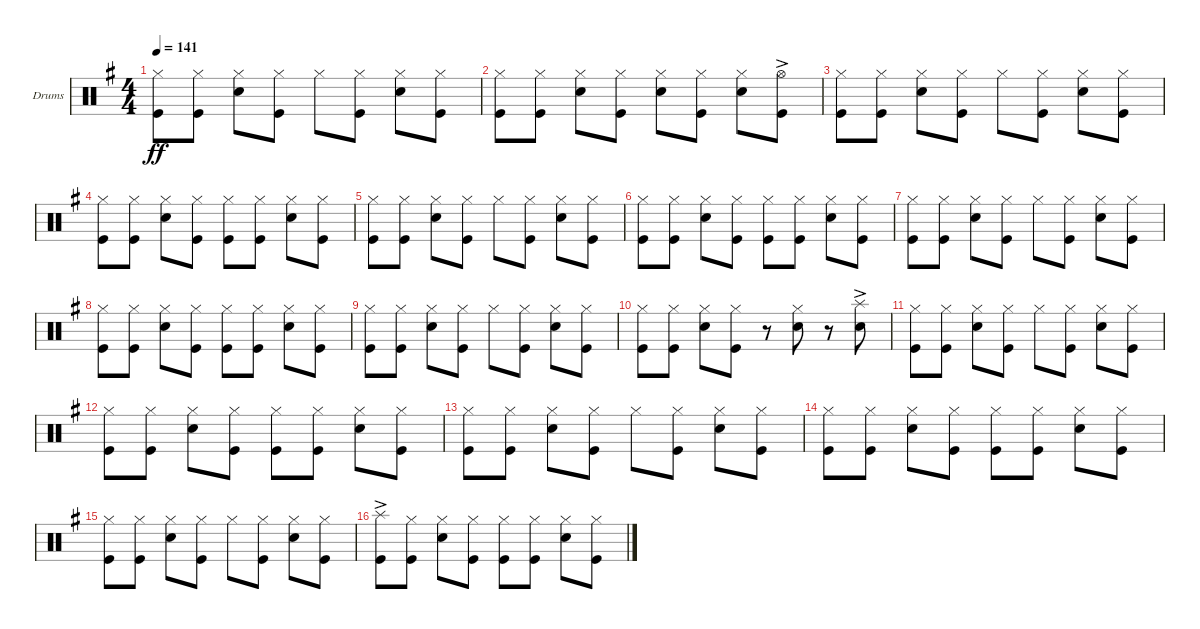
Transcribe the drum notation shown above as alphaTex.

\defaultSystemsLayout 4
\bracketExtendMode groupsimilarinstruments
\firstSystemTrackNameOrientation horizontal
\otherSystemsTrackNameOrientation horizontal
\track ("Drumkit" "Drums") {instrument percussion}
\staff {score}
\articulation defaults
\ts (4 4)
\tempo 141
\clef neutral
\scale
0.333333
\ks g
("Kick (hit)" "Hi-Hat (closed)").8{dy ff} ("Kick (hit)" "Hi-Hat (closed)").8 ("Snare (hit) 2" "Hi-Hat (closed)").8 ("Hi-Hat (closed)" "Kick (hit)").8 "Hi-Hat (closed)".8 ("Kick (hit)" "Hi-Hat (closed)").8 ("Snare (hit) 2" "Hi-Hat (closed)").8 ("Kick (hit)" "Hi-Hat (closed)").8 |
\scale
0.333333 ("Kick (hit)" "Hi-Hat (closed)").8 ("Kick (hit)" "Hi-Hat (closed)").8 ("Snare (hit) 2" "Hi-Hat (closed)").8 ("Kick (hit)" "Hi-Hat (closed)").8 ("Hi-Hat (closed)" "Snare (hit) 2").8 ("Kick (hit)" "Hi-Hat (closed)").8 ("Snare (hit) 2" "Hi-Hat (closed)").8 ("Kick (hit)" "Hi-Hat (open)"{ac}).8 |
\scale
0.333333 ("Kick (hit)" "Hi-Hat (closed)").8 ("Kick (hit)" "Hi-Hat (closed)").8 ("Snare (hit) 2" "Hi-Hat (closed)").8 ("Kick (hit)" "Hi-Hat (closed)").8 "Hi-Hat (closed)".8 ("Kick (hit)" "Hi-Hat (closed)").8 ("Snare (hit) 2" "Hi-Hat (closed)").8 ("Kick (hit)" "Hi-Hat (closed)").8 |
\scale
0.333333 ("Kick (hit)" "Hi-Hat (closed)").8 ("Kick (hit)" "Hi-Hat (closed)").8 ("Snare (hit) 2" "Hi-Hat (closed)").8 ("Kick (hit)" "Hi-Hat (closed)").8 ("Kick (hit)" "Hi-Hat (closed)").8 ("Kick (hit)" "Hi-Hat (closed)").8 ("Snare (hit) 2" "Hi-Hat (closed)").8 ("Kick (hit)" "Hi-Hat (closed)").8 |
\scale
0.333333 ("Kick (hit)" "Hi-Hat (closed)").8 ("Kick (hit)" "Hi-Hat (closed)").8 ("Snare (hit) 2" "Hi-Hat (closed)").8 ("Hi-Hat (closed)" "Kick (hit)").8 "Hi-Hat (closed)".8 ("Kick (hit)" "Hi-Hat (closed)").8 ("Snare (hit) 2" "Hi-Hat (closed)").8 ("Kick (hit)" "Hi-Hat (closed)").8 |
\scale
0.333333 ("Kick (hit)" "Hi-Hat (closed)").8 ("Kick (hit)" "Hi-Hat (closed)").8 ("Snare (hit) 2" "Hi-Hat (closed)").8 ("Kick (hit)" "Hi-Hat (closed)").8 ("Kick (hit)" "Hi-Hat (closed)").8 ("Kick (hit)" "Hi-Hat (closed)").8 ("Snare (hit) 2" "Hi-Hat (closed)").8 ("Kick (hit)" "Hi-Hat (closed)").8 |
\scale
0.333333 ("Kick (hit)" "Hi-Hat (closed)").8 ("Kick (hit)" "Hi-Hat (closed)").8 ("Snare (hit) 2" "Hi-Hat (closed)").8 ("Hi-Hat (closed)" "Kick (hit)").8 "Hi-Hat (closed)".8 ("Kick (hit)" "Hi-Hat (closed)").8 ("Snare (hit) 2" "Hi-Hat (closed)").8 ("Kick (hit)" "Hi-Hat (closed)").8 |
\scale
0.333333 ("Kick (hit)" "Hi-Hat (closed)").8 ("Kick (hit)" "Hi-Hat (closed)").8 ("Snare (hit) 2" "Hi-Hat (closed)").8 ("Kick (hit)" "Hi-Hat (closed)").8 ("Kick (hit)" "Hi-Hat (closed)").8 ("Kick (hit)" "Hi-Hat (closed)").8 ("Snare (hit) 2" "Hi-Hat (closed)").8 ("Kick (hit)" "Hi-Hat (closed)").8 |
\scale
0.333333 ("Kick (hit)" "Hi-Hat (closed)").8 ("Kick (hit)" "Hi-Hat (closed)").8 ("Snare (hit) 2" "Hi-Hat (closed)").8 ("Hi-Hat (closed)" "Kick (hit)").8 "Hi-Hat (closed)".8 ("Kick (hit)" "Hi-Hat (closed)").8 ("Snare (hit) 2" "Hi-Hat (closed)").8 ("Kick (hit)" "Hi-Hat (closed)").8 |
\scale
0.333333 ("Kick (hit)" "Hi-Hat (closed)").8 ("Kick (hit)" "Hi-Hat (closed)").8 ("Snare (hit) 2" "Hi-Hat (closed)").8 ("Kick (hit)" "Hi-Hat (closed)").8 r.8 ("Hi-Hat (closed)" "Snare (hit) 2").8 r.8 ("Snare (hit) 2" "Splash (hit)"{ac}).8 |
\scale
0.333333 ("Kick (hit)" "Hi-Hat (closed)").8 ("Kick (hit)" "Hi-Hat (closed)").8 ("Snare (hit) 2" "Hi-Hat (closed)").8 ("Kick (hit)" "Hi-Hat (closed)").8 "Hi-Hat (closed)".8 ("Kick (hit)" "Hi-Hat (closed)").8 ("Snare (hit) 2" "Hi-Hat (closed)").8 ("Kick (hit)" "Hi-Hat (closed)").8 |
\scale
0.333333 ("Kick (hit)" "Hi-Hat (closed)").8 ("Kick (hit)" "Hi-Hat (closed)").8 ("Snare (hit) 2" "Hi-Hat (closed)").8 ("Kick (hit)" "Hi-Hat (closed)").8 ("Kick (hit)" "Hi-Hat (closed)").8 ("Kick (hit)" "Hi-Hat (closed)").8 ("Snare (hit) 2" "Hi-Hat (closed)").8 ("Kick (hit)" "Hi-Hat (closed)").8 |
\scale
0.333333 ("Kick (hit)" "Hi-Hat (closed)").8 ("Kick (hit)" "Hi-Hat (closed)").8 ("Snare (hit) 2" "Hi-Hat (closed)").8 ("Hi-Hat (closed)" "Kick (hit)").8 "Hi-Hat (closed)".8 ("Kick (hit)" "Hi-Hat (closed)").8 ("Snare (hit) 2" "Hi-Hat (closed)").8 ("Kick (hit)" "Hi-Hat (closed)").8 |
\scale
0.333333 ("Kick (hit)" "Hi-Hat (closed)").8 ("Kick (hit)" "Hi-Hat (closed)").8 ("Snare (hit) 2" "Hi-Hat (closed)").8 ("Kick (hit)" "Hi-Hat (closed)").8 ("Kick (hit)" "Hi-Hat (closed)").8 ("Kick (hit)" "Hi-Hat (closed)").8 ("Snare (hit) 2" "Hi-Hat (closed)").8 ("Kick (hit)" "Hi-Hat (closed)").8 |
\scale
0.333333 ("Kick (hit)" "Hi-Hat (closed)").8 ("Kick (hit)" "Hi-Hat (closed)").8 ("Snare (hit) 2" "Hi-Hat (closed)").8 ("Hi-Hat (closed)" "Kick (hit)").8 "Hi-Hat (closed)".8 ("Kick (hit)" "Hi-Hat (closed)").8 ("Snare (hit) 2" "Hi-Hat (closed)").8 ("Kick (hit)" "Hi-Hat (closed)").8 |
\scale
0.333333 ("Kick (hit)" "Splash (hit)"{ac}).8 ("Kick (hit)" "Hi-Hat (closed)").8 ("Snare (hit) 2" "Hi-Hat (closed)").8 ("Kick (hit)" "Hi-Hat (closed)").8 ("Kick (hit)" "Hi-Hat (closed)").8 ("Kick (hit)" "Hi-Hat (closed)").8 ("Snare (hit) 2" "Hi-Hat (closed)").8 ("Kick (hit)" "Hi-Hat (closed)").8
